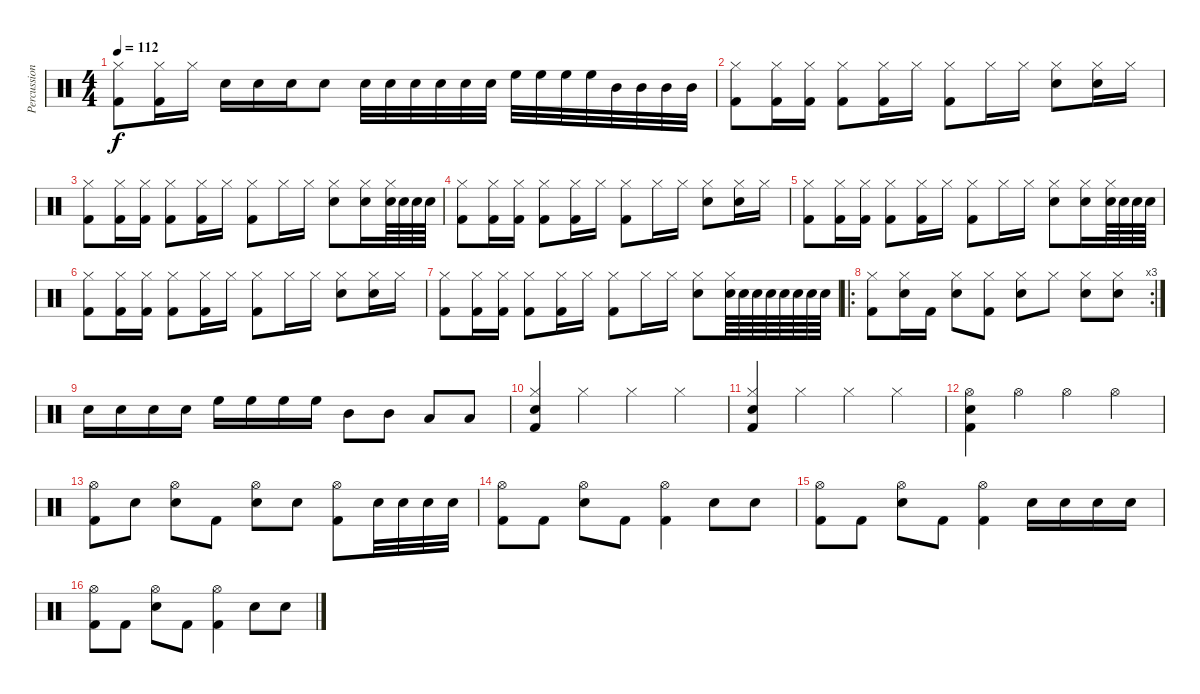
\track ("Percussion" "Percussion") {instrument percussion}
\staff {score}
\articulation defaults
\ts (4 4)
\tempo 112
\clef neutral
\ks c
("Kick (hit) 2" "Hi-Hat (closed)").8{dy f} ("Kick (hit) 2" "Hi-Hat (closed)").16 "Hi-Hat (closed)".16 "Snare (hit) 2".16 "Snare (hit) 2".16 "Snare (hit) 2".16 "Snare (hit) 2".8 "Snare (hit) 2".32 "Snare (hit) 2".32 "Snare (hit) 2".32 "Snare (hit) 2".32 "Snare (hit) 2".32 "Snare (hit) 2".32 "High Floor Tom (hit)".32 "High Floor Tom (hit)".32 "High Floor Tom (hit)".32 "High Floor Tom (hit)".32 "Mid Tom (hit)".32 "Mid Tom (hit)".32 "Mid Tom (hit)".32 "Mid Tom (hit)".32 |
("Kick (hit) 2" "Hi-Hat (closed)").8 ("Kick (hit) 2" "Hi-Hat (closed)").16 ("Kick (hit) 2" "Hi-Hat (closed)").16 ("Kick (hit) 2" "Hi-Hat (closed)").8 ("Kick (hit) 2" "Hi-Hat (closed)").16 "Hi-Hat (closed)".16 ("Kick (hit) 2" "Hi-Hat (closed)").8 "Hi-Hat (closed)".16 "Hi-Hat (closed)".16 ("Snare (hit) 2" "Hi-Hat (closed)").8 ("Snare (hit) 2" "Hi-Hat (closed)").16 "Hi-Hat (closed)".16 |
("Kick (hit) 2" "Hi-Hat (closed)").8 ("Kick (hit) 2" "Hi-Hat (closed)").16 ("Kick (hit) 2" "Hi-Hat (closed)").16 ("Kick (hit) 2" "Hi-Hat (closed)").8 ("Kick (hit) 2" "Hi-Hat (closed)").16 "Hi-Hat (closed)".16 ("Kick (hit) 2" "Hi-Hat (closed)").8 "Hi-Hat (closed)".16 "Hi-Hat (closed)".16 ("Snare (hit) 2" "Hi-Hat (closed)").8 ("Snare (hit) 2" "Hi-Hat (closed)").16 ("Snare (hit) 2" "Hi-Hat (closed)").64 "Snare (hit) 2".64 "Snare (hit) 2".64 "Snare (hit) 2".64 |
("Kick (hit) 2" "Hi-Hat (closed)").8 ("Kick (hit) 2" "Hi-Hat (closed)").16 ("Kick (hit) 2" "Hi-Hat (closed)").16 ("Kick (hit) 2" "Hi-Hat (closed)").8 ("Kick (hit) 2" "Hi-Hat (closed)").16 "Hi-Hat (closed)".16 ("Kick (hit) 2" "Hi-Hat (closed)").8 "Hi-Hat (closed)".16 "Hi-Hat (closed)".16 ("Snare (hit) 2" "Hi-Hat (closed)").8 ("Snare (hit) 2" "Hi-Hat (closed)").16 "Hi-Hat (closed)".16 |
("Kick (hit) 2" "Hi-Hat (closed)").8 ("Kick (hit) 2" "Hi-Hat (closed)").16 ("Kick (hit) 2" "Hi-Hat (closed)").16 ("Kick (hit) 2" "Hi-Hat (closed)").8 ("Kick (hit) 2" "Hi-Hat (closed)").16 "Hi-Hat (closed)".16 ("Kick (hit) 2" "Hi-Hat (closed)").8 "Hi-Hat (closed)".16 "Hi-Hat (closed)".16 ("Snare (hit) 2" "Hi-Hat (closed)").8 ("Snare (hit) 2" "Hi-Hat (closed)").16 ("Snare (hit) 2" "Hi-Hat (closed)").64 "Snare (hit) 2".64 "Snare (hit) 2".64 "Snare (hit) 2".64 |
("Kick (hit) 2" "Hi-Hat (closed)").8 ("Kick (hit) 2" "Hi-Hat (closed)").16 ("Kick (hit) 2" "Hi-Hat (closed)").16 ("Kick (hit) 2" "Hi-Hat (closed)").8 ("Kick (hit) 2" "Hi-Hat (closed)").16 "Hi-Hat (closed)".16 ("Kick (hit) 2" "Hi-Hat (closed)").8 "Hi-Hat (closed)".16 "Hi-Hat (closed)".16 ("Snare (hit) 2" "Hi-Hat (closed)").8 ("Snare (hit) 2" "Hi-Hat (closed)").16 "Hi-Hat (closed)".16 |
("Kick (hit) 2" "Hi-Hat (closed)").8 ("Kick (hit) 2" "Hi-Hat (closed)").16 ("Kick (hit) 2" "Hi-Hat (closed)").16 ("Kick (hit) 2" "Hi-Hat (closed)").8 ("Kick (hit) 2" "Hi-Hat (closed)").16 "Hi-Hat (closed)".16 ("Kick (hit) 2" "Hi-Hat (closed)").8 "Hi-Hat (closed)".16 "Hi-Hat (closed)".16 ("Snare (hit) 2" "Hi-Hat (closed)").8 ("Snare (hit) 2" "Hi-Hat (closed)").64 "Snare (hit) 2".64 "Snare (hit) 2".64 "Snare (hit) 2".64 "Snare (hit) 2".64 "Snare (hit) 2".64 "Snare (hit) 2".64 "Snare (hit) 2".64 |
\ro
\rc 3
("Hi-Hat (closed)" "Kick (hit) 2").8 ("Hi-Hat (closed)" "Snare (hit) 2").16 "Kick (hit) 2".16 ("Hi-Hat (closed)" "Snare (hit) 2").8 ("Hi-Hat (closed)" "Kick (hit) 2").8 ("Hi-Hat (closed)" "Snare (hit) 2").8 "Hi-Hat (closed)".8 ("Hi-Hat (closed)" "Snare (hit) 2").8 ("Hi-Hat (closed)" "Snare (hit) 2").8 |
"Snare (hit) 2".16 "Snare (hit) 2".16 "Snare (hit) 2".16 "Snare (hit) 2".16 "High Floor Tom (hit)".16 "High Floor Tom (hit)".16 "High Floor Tom (hit)".16 "High Floor Tom (hit)".16 "Mid Tom (hit)".8 "Mid Tom (hit)".8 "Low Floor Tom (hit)".8 "Low Floor Tom (hit)".8 |
("Hi-Hat (closed)" "Snare (hit) 2" "Kick (hit) 2").4 "Hi-Hat (closed)".4 "Hi-Hat (closed)".4 "Hi-Hat (closed)".4 |
("Hi-Hat (closed)" "Snare (hit) 2" "Kick (hit) 2").4 "Hi-Hat (closed)".4 "Hi-Hat (closed)".4 "Hi-Hat (closed)".4 |
("Hi-Hat (open)" "Snare (hit) 2" "Kick (hit) 2").4 "Hi-Hat (open)".4 "Hi-Hat (open)".4 "Hi-Hat (open)".4 |
("Hi-Hat (open)" "Kick (hit) 2").8 "Snare (hit) 2".8 ("Hi-Hat (open)" "Snare (hit) 2").8 "Kick (hit) 2".8 ("Hi-Hat (open)" "Snare (hit) 2").8 "Snare (hit) 2".8 ("Hi-Hat (open)" "Kick (hit) 2").8 "Snare (hit) 2".32 "Snare (hit) 2".32 "Snare (hit) 2".32 "Snare (hit) 2".32 |
("Hi-Hat (open)" "Kick (hit) 2").8 "Kick (hit) 2".8 ("Hi-Hat (open)" "Snare (hit) 2").8 "Kick (hit) 2".8 ("Hi-Hat (open)" "Kick (hit) 2").4 "Snare (hit) 2".8 "Snare (hit) 2".8 |
("Hi-Hat (open)" "Kick (hit) 2").8 "Kick (hit) 2".8 ("Hi-Hat (open)" "Snare (hit) 2").8 "Kick (hit) 2".8 ("Hi-Hat (open)" "Kick (hit) 2").4 "Snare (hit) 2".16 "Snare (hit) 2".16 "Snare (hit) 2".16 "Snare (hit) 2".16 |
("Hi-Hat (open)" "Kick (hit) 2").8 "Kick (hit) 2".8 ("Hi-Hat (open)" "Snare (hit) 2").8 "Kick (hit) 2".8 ("Hi-Hat (open)" "Kick (hit) 2").4 "Snare (hit) 2".8 "Snare (hit) 2".8
